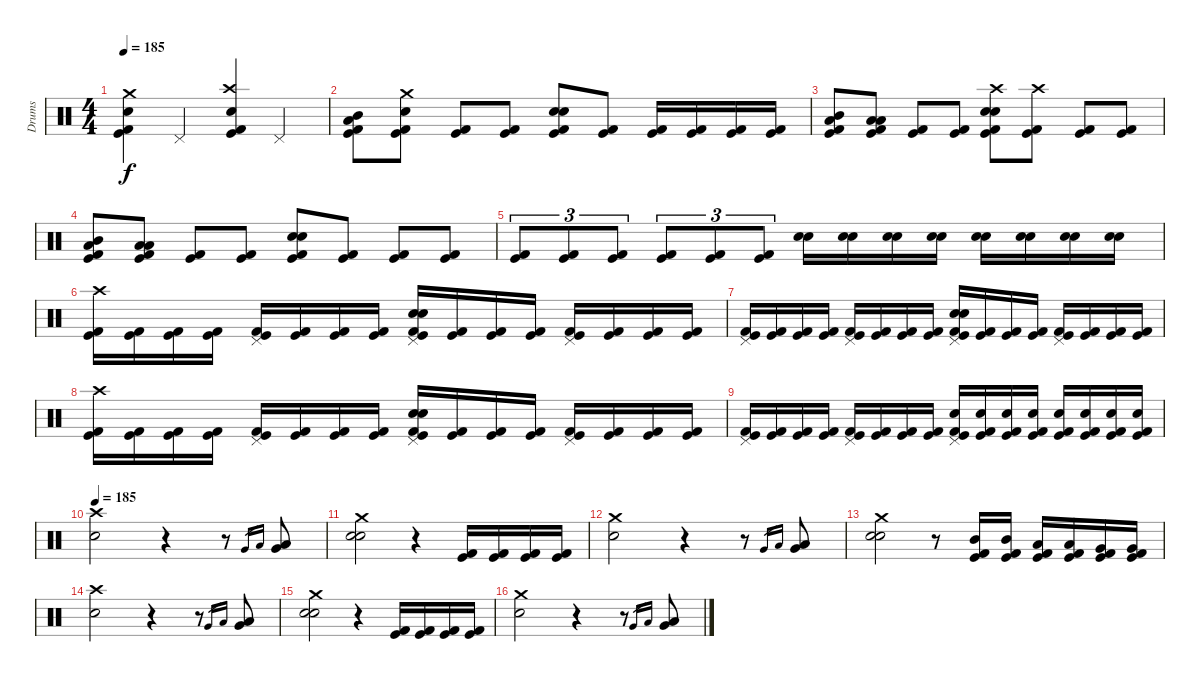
\track ("Drums" "Drums") {instrument percussion}
\staff {score}
\articulation defaults
\ts (4 4)
\tempo 185
\clef neutral
\ks c
("Crash medium (hit)" "Snare (hit) 2" "Kick (hit) 2" "Kick (hit)").4{dy f} "Pedal Hi-Hat (hit)".4 ("Crash high (hit)" "Electric Snare (hit)" "Kick (hit) 2" "Kick (hit)").4 "Pedal Hi-Hat (hit)".4 |
("Mid Tom (hit)" "Low Tom (hit)" "Kick (hit) 2" "Kick (hit)").8 ("Crash medium (hit)" "Snare (hit) 2" "Kick (hit) 2" "Kick (hit)").8 ("Kick (hit) 2" "Kick (hit)").8 ("Kick (hit) 2" "Kick (hit)").8 ("Electric Snare (hit)" "Snare (hit) 2" "Kick (hit) 2" "Kick (hit)").8 ("Kick (hit) 2" "Kick (hit)").8 ("Kick (hit) 2" "Kick (hit)").16 ("Kick (hit) 2" "Kick (hit)").16 ("Kick (hit) 2" "Kick (hit)").16 ("Kick (hit) 2" "Kick (hit)").16 |
("Mid Tom (hit)" "Low Tom (hit)" "Kick (hit) 2" "Kick (hit)").8 ("Low Tom (hit)" "Low Tom (hit)" "Kick (hit) 2" "Kick (hit)").8 ("Kick (hit) 2" "Kick (hit)").8 ("Kick (hit) 2" "Kick (hit)").8 ("Crash high (hit)" "Electric Snare (hit)" "Snare (hit) 2" "Kick (hit) 2" "Kick (hit)").8 ("Crash high (hit)" "Kick (hit) 2" "Kick (hit)").8 ("Kick (hit) 2" "Kick (hit)").8 ("Kick (hit) 2" "Kick (hit)").8 |
("Mid Tom (hit)" "Low Tom (hit)" "Kick (hit) 2" "Kick (hit)").8 ("Low Tom (hit)" "Low Tom (hit)" "Kick (hit) 2" "Kick (hit)").8 ("Kick (hit) 2" "Kick (hit)").8 ("Kick (hit) 2" "Kick (hit)").8 ("Electric Snare (hit)" "Snare (hit) 2" "Kick (hit) 2" "Kick (hit)").8 ("Kick (hit) 2" "Kick (hit)").8 ("Kick (hit) 2" "Kick (hit)").8 ("Kick (hit) 2" "Kick (hit)").8 |
("Kick (hit) 2" "Kick (hit)").8{tu (3 2)} ("Kick (hit) 2" "Kick (hit)").8{tu (3 2)} ("Kick (hit) 2" "Kick (hit)").8{tu (3 2)} ("Kick (hit) 2" "Kick (hit)").8{tu (3 2)} ("Kick (hit) 2" "Kick (hit)").8{tu (3 2)} ("Kick (hit) 2" "Kick (hit)").8{tu (3 2)} ("Electric Snare (hit)" "Snare (hit) 2").16 ("Electric Snare (hit)" "Snare (hit) 2").16 ("Electric Snare (hit)" "Snare (hit) 2").16 ("Electric Snare (hit)" "Snare (hit) 2").16 ("Electric Snare (hit)" "Snare (hit) 2").16 ("Electric Snare (hit)" "Snare (hit) 2").16 ("Electric Snare (hit)" "Snare (hit) 2").16 ("Electric Snare (hit)" "Snare (hit) 2").16 |
("Crash high (hit)" "Kick (hit) 2" "Kick (hit)").16 ("Kick (hit) 2" "Kick (hit)").16 ("Kick (hit) 2" "Kick (hit)").16 ("Kick (hit) 2" "Kick (hit)").16 ("Pedal Hi-Hat (hit)" "Kick (hit) 2" "Kick (hit)").16 ("Kick (hit) 2" "Kick (hit)").16 ("Kick (hit) 2" "Kick (hit)").16 ("Kick (hit) 2" "Kick (hit)").16 ("Pedal Hi-Hat (hit)" "Electric Snare (hit)" "Snare (hit) 2" "Kick (hit) 2" "Kick (hit)").16 ("Kick (hit) 2" "Kick (hit)").16 ("Kick (hit) 2" "Kick (hit)").16 ("Kick (hit) 2" "Kick (hit)").16 ("Pedal Hi-Hat (hit)" "Kick (hit) 2" "Kick (hit)").16 ("Kick (hit) 2" "Kick (hit)").16 ("Kick (hit) 2" "Kick (hit)").16 ("Kick (hit) 2" "Kick (hit)").16 |
("Pedal Hi-Hat (hit)" "Kick (hit) 2" "Kick (hit)").16 ("Kick (hit) 2" "Kick (hit)").16 ("Kick (hit) 2" "Kick (hit)").16 ("Kick (hit) 2" "Kick (hit)").16 ("Pedal Hi-Hat (hit)" "Kick (hit) 2" "Kick (hit)").16 ("Kick (hit) 2" "Kick (hit)").16 ("Kick (hit) 2" "Kick (hit)").16 ("Kick (hit) 2" "Kick (hit)").16 ("Pedal Hi-Hat (hit)" "Electric Snare (hit)" "Snare (hit) 2" "Kick (hit) 2" "Kick (hit)").16 ("Kick (hit) 2" "Kick (hit)").16 ("Kick (hit) 2" "Kick (hit)").16 ("Kick (hit) 2" "Kick (hit)").16 ("Pedal Hi-Hat (hit)" "Kick (hit) 2" "Kick (hit)").16 ("Kick (hit) 2" "Kick (hit)").16 ("Kick (hit) 2" "Kick (hit)").16 ("Kick (hit) 2" "Kick (hit)").16 |
("Crash high (hit)" "Kick (hit) 2" "Kick (hit)").16 ("Kick (hit) 2" "Kick (hit)").16 ("Kick (hit) 2" "Kick (hit)").16 ("Kick (hit) 2" "Kick (hit)").16 ("Pedal Hi-Hat (hit)" "Kick (hit) 2" "Kick (hit)").16 ("Kick (hit) 2" "Kick (hit)").16 ("Kick (hit) 2" "Kick (hit)").16 ("Kick (hit) 2" "Kick (hit)").16 ("Pedal Hi-Hat (hit)" "Electric Snare (hit)" "Snare (hit) 2" "Kick (hit) 2" "Kick (hit)").16 ("Kick (hit) 2" "Kick (hit)").16 ("Kick (hit) 2" "Kick (hit)").16 ("Kick (hit) 2" "Kick (hit)").16 ("Pedal Hi-Hat (hit)" "Kick (hit) 2" "Kick (hit)").16 ("Kick (hit) 2" "Kick (hit)").16 ("Kick (hit) 2" "Kick (hit)").16 ("Kick (hit) 2" "Kick (hit)").16 |
("Pedal Hi-Hat (hit)" "Kick (hit) 2" "Kick (hit)").16 ("Kick (hit) 2" "Kick (hit)").16 ("Kick (hit) 2" "Kick (hit)").16 ("Kick (hit) 2" "Kick (hit)").16 ("Pedal Hi-Hat (hit)" "Kick (hit) 2" "Kick (hit)").16 ("Kick (hit) 2" "Kick (hit)").16 ("Kick (hit) 2" "Kick (hit)").16 ("Kick (hit) 2" "Kick (hit)").16 ("Pedal Hi-Hat (hit)" "Electric Snare (hit)" "Kick (hit) 2" "Kick (hit)").16 ("Electric Snare (hit)" "Kick (hit) 2" "Kick (hit)").16 ("Electric Snare (hit)" "Kick (hit) 2" "Kick (hit)").16 ("Electric Snare (hit)" "Kick (hit) 2" "Kick (hit)").16 ("Snare (hit) 2" "Kick (hit) 2" "Kick (hit)").16 ("Snare (hit) 2" "Kick (hit) 2" "Kick (hit)").16 ("Snare (hit) 2" "Kick (hit) 2" "Kick (hit)").16 ("Snare (hit) 2" "Kick (hit) 2" "Kick (hit)").16 |
\tempo 185
("Crash high (hit)" "Snare (hit) 2").2 r.4 r.8 "Very Low Tom (hit)".16{gr} "Low Tom (hit)".16{gr} ("Very Low Tom (hit)" "Low Tom (hit)").8 |
("Crash medium (hit)" "Electric Snare (hit)" "Snare (hit) 2").2 r.4 ("Kick (hit) 2" "Kick (hit)").16 ("Kick (hit) 2" "Kick (hit)").16 ("Kick (hit) 2" "Kick (hit)").16 ("Kick (hit) 2" "Kick (hit)").16 |
("Crash medium (hit)" "Snare (hit) 2").2 r.4 r.8 "Very Low Tom (hit)".16{gr} "Low Tom (hit)".16{gr} ("Very Low Tom (hit)" "Low Tom (hit)").8 |
("Crash medium (hit)" "Electric Snare (hit)" "Snare (hit) 2").2 r.8 ("Mid Tom (hit)" "Kick (hit) 2" "Kick (hit)").16 ("Mid Tom (hit)" "Kick (hit) 2" "Kick (hit)").16 ("Low Tom (hit)" "Kick (hit) 2" "Kick (hit)").16 ("Low Tom (hit)" "Kick (hit) 2" "Kick (hit)").16 ("Very Low Tom (hit)" "Kick (hit) 2" "Kick (hit)").16 ("Very Low Tom (hit)" "Kick (hit) 2" "Kick (hit)").16 |
("Crash high (hit)" "Snare (hit) 2").2 r.4 r.8 "Very Low Tom (hit)".16{gr} "Low Tom (hit)".16{gr} ("Very Low Tom (hit)" "Low Tom (hit)").8 |
("Crash medium (hit)" "Electric Snare (hit)" "Snare (hit) 2").2 r.4 ("Kick (hit) 2" "Kick (hit)").16 ("Kick (hit) 2" "Kick (hit)").16 ("Kick (hit) 2" "Kick (hit)").16 ("Kick (hit) 2" "Kick (hit)").16 |
("Crash medium (hit)" "Snare (hit) 2").2 r.4 r.8 "Very Low Tom (hit)".16{gr} "Low Tom (hit)".16{gr} ("Very Low Tom (hit)" "Low Tom (hit)").8
